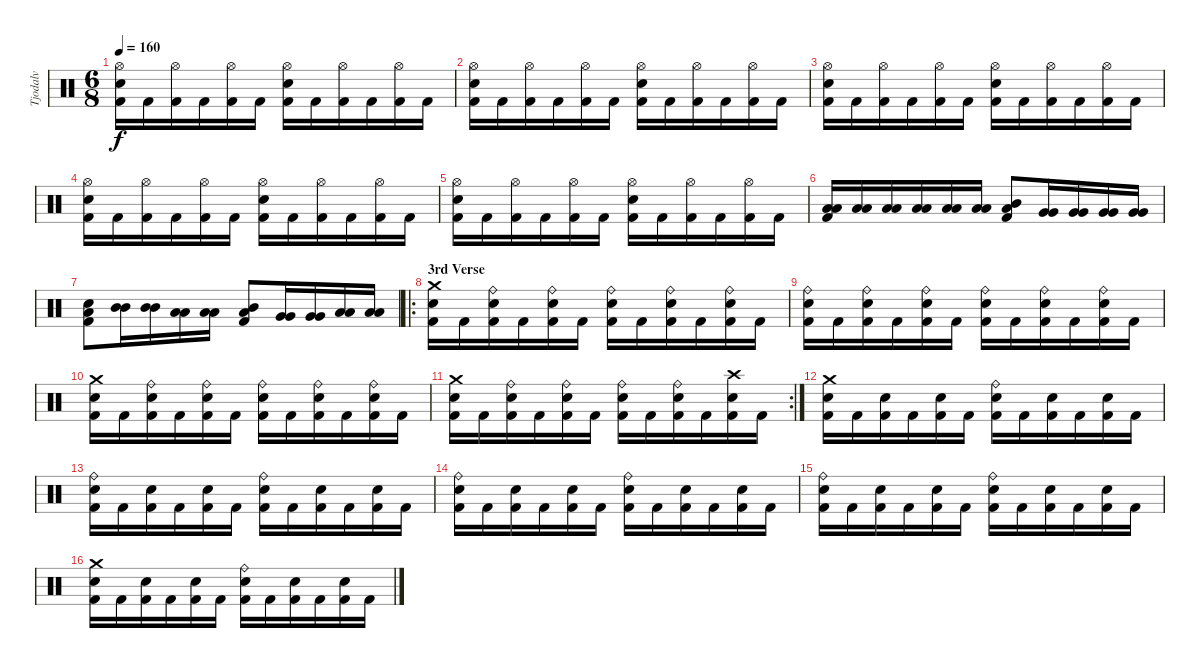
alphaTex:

\track ("Tjodalv" "Tjodalv") {instrument percussion}
\staff {score}
\articulation defaults
\ts (6 8)
\tempo 160
\clef neutral
\ks c
("Hi-Hat (open)" "Snare (hit) 2" "Kick (hit) 2").16{dy f} "Kick (hit) 2".16 ("Hi-Hat (open)" "Kick (hit) 2").16 "Kick (hit) 2".16 ("Hi-Hat (open)" "Kick (hit) 2").16 "Kick (hit) 2".16 ("Hi-Hat (open)" "Snare (hit) 2" "Kick (hit) 2").16 "Kick (hit) 2".16 ("Hi-Hat (open)" "Kick (hit) 2").16 "Kick (hit) 2".16 ("Hi-Hat (open)" "Kick (hit) 2").16 "Kick (hit) 2".16 |
("Hi-Hat (open)" "Snare (hit) 2" "Kick (hit) 2").16 "Kick (hit) 2".16 ("Hi-Hat (open)" "Kick (hit) 2").16 "Kick (hit) 2".16 ("Hi-Hat (open)" "Kick (hit) 2").16 "Kick (hit) 2".16 ("Hi-Hat (open)" "Snare (hit) 2" "Kick (hit) 2").16 "Kick (hit) 2".16 ("Hi-Hat (open)" "Kick (hit) 2").16 "Kick (hit) 2".16 ("Hi-Hat (open)" "Kick (hit) 2").16 "Kick (hit) 2".16 |
("Hi-Hat (open)" "Snare (hit) 2" "Kick (hit) 2").16 "Kick (hit) 2".16 ("Hi-Hat (open)" "Kick (hit) 2").16 "Kick (hit) 2".16 ("Hi-Hat (open)" "Kick (hit) 2").16 "Kick (hit) 2".16 ("Hi-Hat (open)" "Snare (hit) 2" "Kick (hit) 2").16 "Kick (hit) 2".16 ("Hi-Hat (open)" "Kick (hit) 2").16 "Kick (hit) 2".16 ("Hi-Hat (open)" "Kick (hit) 2").16 "Kick (hit) 2".16 |
("Hi-Hat (open)" "Snare (hit) 2" "Kick (hit) 2").16 "Kick (hit) 2".16 ("Hi-Hat (open)" "Kick (hit) 2").16 "Kick (hit) 2".16 ("Hi-Hat (open)" "Kick (hit) 2").16 "Kick (hit) 2".16 ("Hi-Hat (open)" "Snare (hit) 2" "Kick (hit) 2").16 "Kick (hit) 2".16 ("Hi-Hat (open)" "Kick (hit) 2").16 "Kick (hit) 2".16 ("Hi-Hat (open)" "Kick (hit) 2").16 "Kick (hit) 2".16 |
("Hi-Hat (open)" "Snare (hit) 2" "Kick (hit) 2").16 "Kick (hit) 2".16 ("Hi-Hat (open)" "Kick (hit) 2").16 "Kick (hit) 2".16 ("Hi-Hat (open)" "Kick (hit) 2").16 "Kick (hit) 2".16 ("Hi-Hat (open)" "Snare (hit) 2" "Kick (hit) 2").16 "Kick (hit) 2".16 ("Hi-Hat (open)" "Kick (hit) 2").16 "Kick (hit) 2".16 ("Hi-Hat (open)" "Kick (hit) 2").16 "Kick (hit) 2".16 |
("Low Tom (hit)" "Low Tom (hit)" "Kick (hit) 2").16 ("Low Tom (hit)" "Low Tom (hit)").16 ("Low Tom (hit)" "Low Tom (hit)").16 ("Low Tom (hit)" "Low Tom (hit)").16 ("Low Tom (hit)" "Low Tom (hit)").16 ("Low Tom (hit)" "Low Tom (hit)").16 ("Mid Tom (hit)" "Low Tom (hit)" "Kick (hit) 2").8 ("Very Low Tom (hit)" "Very Low Tom (hit)").16 ("Very Low Tom (hit)" "Very Low Tom (hit)").16 ("Very Low Tom (hit)" "Very Low Tom (hit)").16 ("Very Low Tom (hit)" "Very Low Tom (hit)").16 |
("Low Floor Tom (hit)" "Snare (hit) 2" "Kick (hit) 2").8 ("Mid Tom (hit)" "Mid Tom (hit)").16 ("Mid Tom (hit)" "Mid Tom (hit)").16 ("Low Tom (hit)" "Low Tom (hit)").16 ("Low Tom (hit)" "Low Tom (hit)").16 ("Low Tom (hit)" "Mid Tom (hit)" "Kick (hit) 2").8 ("Very Low Tom (hit)" "Very Low Tom (hit)").16 ("Very Low Tom (hit)" "Very Low Tom (hit)").16 ("Low Floor Tom (hit)" "Low Floor Tom (hit)").16 ("Low Floor Tom (hit)" "Low Floor Tom (hit)").16 |
\ro
\section ("" "3rd Verse")
("Crash medium (hit)" "Snare (hit) 2" "Kick (hit) 2").16 "Kick (hit) 2".16 ("Ride (bell)" "Snare (hit) 2" "Kick (hit) 2").16 "Kick (hit) 2".16 ("Ride (bell)" "Snare (hit) 2" "Kick (hit) 2").16 "Kick (hit) 2".16 ("Ride (bell)" "Snare (hit) 2" "Kick (hit) 2").16 "Kick (hit) 2".16 ("Ride (bell)" "Snare (hit) 2" "Kick (hit) 2").16 "Kick (hit) 2".16 ("Ride (bell)" "Snare (hit) 2" "Kick (hit) 2").16 "Kick (hit) 2".16 |
("Ride (bell)" "Snare (hit) 2" "Kick (hit) 2").16 "Kick (hit) 2".16 ("Ride (bell)" "Snare (hit) 2" "Kick (hit) 2").16 "Kick (hit) 2".16 ("Ride (bell)" "Snare (hit) 2" "Kick (hit) 2").16 "Kick (hit) 2".16 ("Ride (bell)" "Snare (hit) 2" "Kick (hit) 2").16 "Kick (hit) 2".16 ("Ride (bell)" "Snare (hit) 2" "Kick (hit) 2").16 "Kick (hit) 2".16 ("Ride (bell)" "Snare (hit) 2" "Kick (hit) 2").16 "Kick (hit) 2".16 |
("Crash medium (hit)" "Snare (hit) 2" "Kick (hit) 2").16 "Kick (hit) 2".16 ("Ride (bell)" "Snare (hit) 2" "Kick (hit) 2").16 "Kick (hit) 2".16 ("Ride (bell)" "Snare (hit) 2" "Kick (hit) 2").16 "Kick (hit) 2".16 ("Ride (bell)" "Snare (hit) 2" "Kick (hit) 2").16 "Kick (hit) 2".16 ("Ride (bell)" "Snare (hit) 2" "Kick (hit) 2").16 "Kick (hit) 2".16 ("Ride (bell)" "Snare (hit) 2" "Kick (hit) 2").16 "Kick (hit) 2".16 |
\rc 2
("Crash medium (hit)" "Snare (hit) 2" "Kick (hit) 2").16 "Kick (hit) 2".16 ("Ride (bell)" "Snare (hit) 2" "Kick (hit) 2").16 "Kick (hit) 2".16 ("Ride (bell)" "Snare (hit) 2" "Kick (hit) 2").16 "Kick (hit) 2".16 ("Ride (bell)" "Snare (hit) 2" "Kick (hit) 2").16 "Kick (hit) 2".16 ("Ride (bell)" "Snare (hit) 2" "Kick (hit) 2").16 "Kick (hit) 2".16 ("Crash high (hit)" "Snare (hit) 2" "Kick (hit) 2").16 "Kick (hit) 2".16 |
("Crash medium (hit)" "Snare (hit) 2" "Kick (hit) 2").16 "Kick (hit) 2".16 ("Snare (hit) 2" "Kick (hit) 2").16 "Kick (hit) 2".16 ("Snare (hit) 2" "Kick (hit) 2").16 "Kick (hit) 2".16 ("Ride (bell)" "Snare (hit) 2" "Kick (hit) 2").16 "Kick (hit) 2".16 ("Snare (hit) 2" "Kick (hit) 2").16 "Kick (hit) 2".16 ("Snare (hit) 2" "Kick (hit) 2").16 "Kick (hit) 2".16 |
("Ride (bell)" "Snare (hit) 2" "Kick (hit) 2").16 "Kick (hit) 2".16 ("Snare (hit) 2" "Kick (hit) 2").16 "Kick (hit) 2".16 ("Snare (hit) 2" "Kick (hit) 2").16 "Kick (hit) 2".16 ("Ride (bell)" "Snare (hit) 2" "Kick (hit) 2").16 "Kick (hit) 2".16 ("Snare (hit) 2" "Kick (hit) 2").16 "Kick (hit) 2".16 ("Snare (hit) 2" "Kick (hit) 2").16 "Kick (hit) 2".16 |
("Ride (bell)" "Snare (hit) 2" "Kick (hit) 2").16 "Kick (hit) 2".16 ("Snare (hit) 2" "Kick (hit) 2").16 "Kick (hit) 2".16 ("Snare (hit) 2" "Kick (hit) 2").16 "Kick (hit) 2".16 ("Ride (bell)" "Snare (hit) 2" "Kick (hit) 2").16 "Kick (hit) 2".16 ("Snare (hit) 2" "Kick (hit) 2").16 "Kick (hit) 2".16 ("Snare (hit) 2" "Kick (hit) 2").16 "Kick (hit) 2".16 |
("Ride (bell)" "Snare (hit) 2" "Kick (hit) 2").16 "Kick (hit) 2".16 ("Snare (hit) 2" "Kick (hit) 2").16 "Kick (hit) 2".16 ("Snare (hit) 2" "Kick (hit) 2").16 "Kick (hit) 2".16 ("Ride (bell)" "Snare (hit) 2" "Kick (hit) 2").16 "Kick (hit) 2".16 ("Snare (hit) 2" "Kick (hit) 2").16 "Kick (hit) 2".16 ("Snare (hit) 2" "Kick (hit) 2").16 "Kick (hit) 2".16 |
("Crash medium (hit)" "Snare (hit) 2" "Kick (hit) 2").16 "Kick (hit) 2".16 ("Snare (hit) 2" "Kick (hit) 2").16 "Kick (hit) 2".16 ("Snare (hit) 2" "Kick (hit) 2").16 "Kick (hit) 2".16 ("Ride (bell)" "Snare (hit) 2" "Kick (hit) 2").16 "Kick (hit) 2".16 ("Snare (hit) 2" "Kick (hit) 2").16 "Kick (hit) 2".16 ("Snare (hit) 2" "Kick (hit) 2").16 "Kick (hit) 2".16
